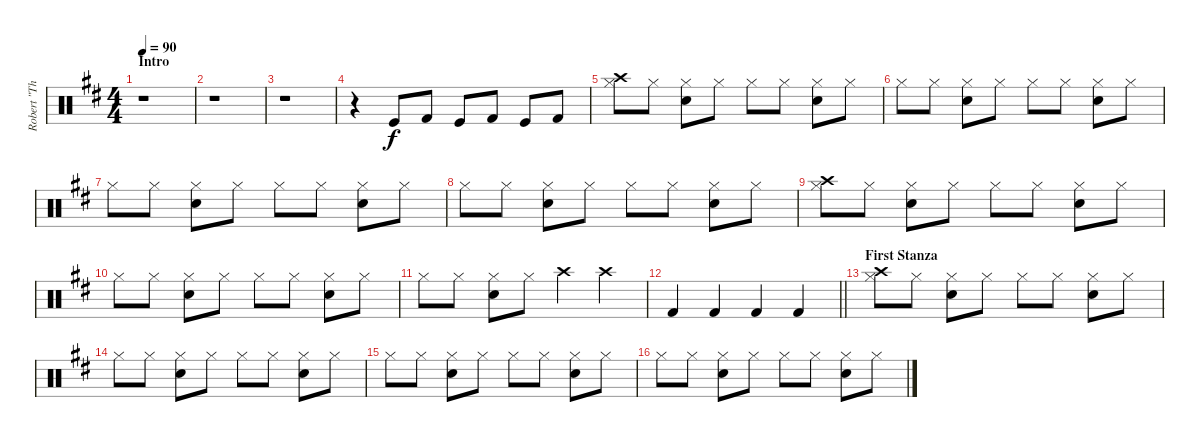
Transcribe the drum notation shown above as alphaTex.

\track ("Robert \"The Visual Timekeeper\" Sweet [Dr" "Robert \"Th") {instrument percussion}
\staff {score}
\articulation defaults
\ts (4 4)
\section ("" "Intro")
\tempo 90
\clef neutral
\ks d
r.1{dy f} |
r.1 |
r.1 |
r.4 "Kick (hit)".8 "Kick (hit) 2".8 "Kick (hit)".8 "Kick (hit) 2".8 "Kick (hit)".8 "Kick (hit) 2".8 |
("Crash high (hit)" "Hi-Hat (closed)").8 "Hi-Hat (closed)".8 ("Hi-Hat (closed)" "Snare (hit) 2").8 "Hi-Hat (closed)".8 "Hi-Hat (closed)".8 "Hi-Hat (closed)".8 ("Hi-Hat (closed)" "Snare (hit) 2").8 "Hi-Hat (closed)".8 |
"Hi-Hat (closed)".8 "Hi-Hat (closed)".8 ("Hi-Hat (closed)" "Snare (hit) 2").8 "Hi-Hat (closed)".8 "Hi-Hat (closed)".8 "Hi-Hat (closed)".8 ("Hi-Hat (closed)" "Snare (hit) 2").8 "Hi-Hat (closed)".8 |
"Hi-Hat (closed)".8 "Hi-Hat (closed)".8 ("Hi-Hat (closed)" "Snare (hit) 2").8 "Hi-Hat (closed)".8 "Hi-Hat (closed)".8 "Hi-Hat (closed)".8 ("Hi-Hat (closed)" "Snare (hit) 2").8 "Hi-Hat (closed)".8 |
"Hi-Hat (closed)".8 "Hi-Hat (closed)".8 ("Hi-Hat (closed)" "Snare (hit) 2").8 "Hi-Hat (closed)".8 "Hi-Hat (closed)".8 "Hi-Hat (closed)".8 ("Hi-Hat (closed)" "Snare (hit) 2").8 "Hi-Hat (closed)".8 |
("Hi-Hat (closed)" "Crash high (hit)").8 "Hi-Hat (closed)".8 ("Hi-Hat (closed)" "Snare (hit) 2").8 "Hi-Hat (closed)".8 "Hi-Hat (closed)".8 "Hi-Hat (closed)".8 ("Hi-Hat (closed)" "Snare (hit) 2").8 "Hi-Hat (closed)".8 |
"Hi-Hat (closed)".8 "Hi-Hat (closed)".8 ("Hi-Hat (closed)" "Snare (hit) 2").8 "Hi-Hat (closed)".8 "Hi-Hat (closed)".8 "Hi-Hat (closed)".8 ("Hi-Hat (closed)" "Snare (hit) 2").8 "Hi-Hat (closed)".8 |
"Hi-Hat (closed)".8 "Hi-Hat (closed)".8 ("Hi-Hat (closed)" "Snare (hit) 2").8 "Hi-Hat (closed)".8 "Crash high (hit)".4 "Crash high (hit)".4 |
\barLineRight lightlight "Kick (hit) 2".4 "Kick (hit) 2".4 "Kick (hit) 2".4 "Kick (hit) 2".4
|
\section ("" "First Stanza")
("Crash high (hit)" "Hi-Hat (closed)").8 "Hi-Hat (closed)".8 ("Hi-Hat (closed)" "Snare (hit) 2").8 "Hi-Hat (closed)".8 "Hi-Hat (closed)".8 "Hi-Hat (closed)".8 ("Hi-Hat (closed)" "Snare (hit) 2").8 "Hi-Hat (closed)".8 |
"Hi-Hat (closed)".8 "Hi-Hat (closed)".8 ("Hi-Hat (closed)" "Snare (hit) 2").8 "Hi-Hat (closed)".8 "Hi-Hat (closed)".8 "Hi-Hat (closed)".8 ("Hi-Hat (closed)" "Snare (hit) 2").8 "Hi-Hat (closed)".8 |
"Hi-Hat (closed)".8 "Hi-Hat (closed)".8 ("Hi-Hat (closed)" "Snare (hit) 2").8 "Hi-Hat (closed)".8 "Hi-Hat (closed)".8 "Hi-Hat (closed)".8 ("Hi-Hat (closed)" "Snare (hit) 2").8 "Hi-Hat (closed)".8 |
"Hi-Hat (closed)".8 "Hi-Hat (closed)".8 ("Hi-Hat (closed)" "Snare (hit) 2").8 "Hi-Hat (closed)".8 "Hi-Hat (closed)".8 "Hi-Hat (closed)".8 ("Hi-Hat (closed)" "Snare (hit) 2").8 "Hi-Hat (closed)".8
